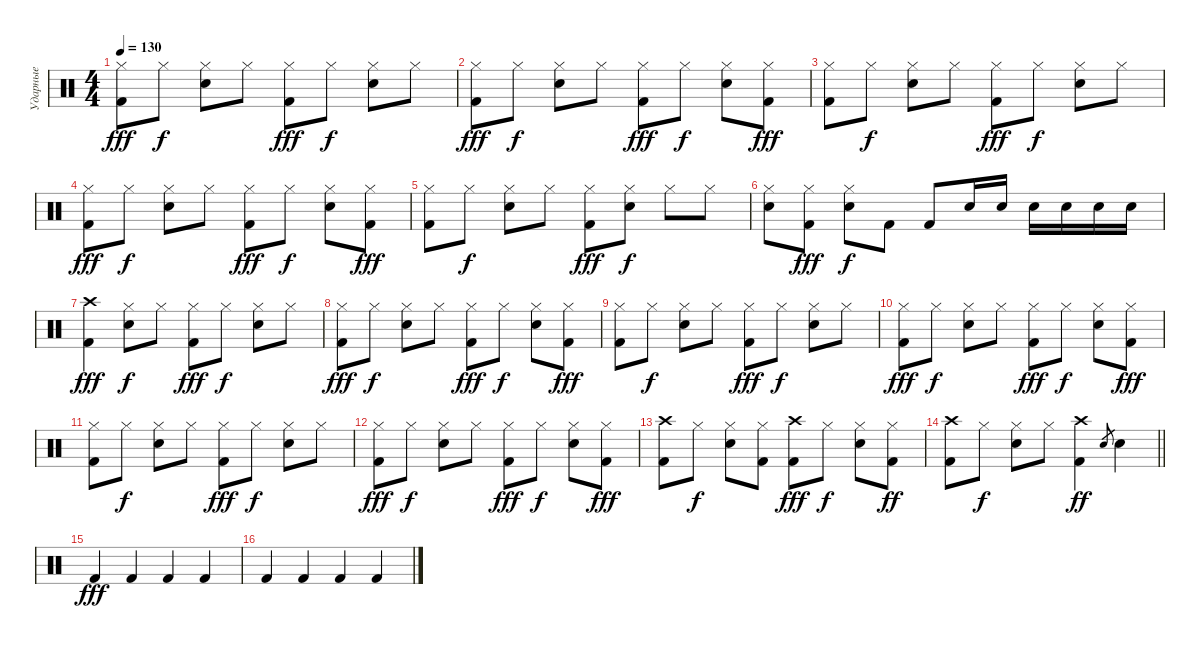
\track ("Ударные" "Ударные") {instrument percussion}
\staff {score}
\articulation defaults
\ts (4 4)
\tempo 130
\clef neutral
\ks c
("Kick (hit) 2" "Hi-Hat (closed)").8{dy fff} "Hi-Hat (closed)".8{dy f} ("Snare (hit) 2" "Hi-Hat (closed)").8 "Hi-Hat (closed)".8 ("Kick (hit) 2" "Hi-Hat (closed)").8{dy fff} "Hi-Hat (closed)".8{dy f} ("Snare (hit) 2" "Hi-Hat (closed)").8 "Hi-Hat (closed)".8 |
("Kick (hit) 2" "Hi-Hat (closed)").8{dy fff} "Hi-Hat (closed)".8{dy f} ("Snare (hit) 2" "Hi-Hat (closed)").8 "Hi-Hat (closed)".8 ("Kick (hit) 2" "Hi-Hat (closed)").8{dy fff} "Hi-Hat (closed)".8{dy f} ("Snare (hit) 2" "Hi-Hat (closed)").8 ("Kick (hit) 2" "Hi-Hat (closed)").8{dy fff} |
("Kick (hit) 2" "Hi-Hat (closed)").8 "Hi-Hat (closed)".8{dy f} ("Snare (hit) 2" "Hi-Hat (closed)").8 "Hi-Hat (closed)".8 ("Kick (hit) 2" "Hi-Hat (closed)").8{dy fff} "Hi-Hat (closed)".8{dy f} ("Snare (hit) 2" "Hi-Hat (closed)").8 "Hi-Hat (closed)".8 |
("Kick (hit) 2" "Hi-Hat (closed)").8{dy fff} "Hi-Hat (closed)".8{dy f} ("Snare (hit) 2" "Hi-Hat (closed)").8 "Hi-Hat (closed)".8 ("Kick (hit) 2" "Hi-Hat (closed)").8{dy fff} "Hi-Hat (closed)".8{dy f} ("Snare (hit) 2" "Hi-Hat (closed)").8 ("Kick (hit) 2" "Hi-Hat (closed)").8{dy fff} |
("Kick (hit) 2" "Hi-Hat (closed)").8 "Hi-Hat (closed)".8{dy f} ("Snare (hit) 2" "Hi-Hat (closed)").8 "Hi-Hat (closed)".8 ("Kick (hit) 2" "Hi-Hat (closed)").8{dy fff} ("Snare (hit) 2" "Hi-Hat (closed)").8{dy f} "Hi-Hat (closed)".8 "Hi-Hat (closed)".8 |
("Snare (hit) 2" "Hi-Hat (closed)").8 ("Kick (hit) 2" "Hi-Hat (closed)").8{dy fff} ("Snare (hit) 2" "Hi-Hat (closed)").8{dy f} "Kick (hit) 2".8 "Kick (hit) 2".8 "Snare (hit) 2".16 "Snare (hit) 2".16 "Snare (hit) 2".16 "Snare (hit) 2".16 "Snare (hit) 2".16 "Snare (hit) 2".16 |
("Kick (hit) 2" "Crash high (hit)").4{dy fff} ("Snare (hit) 2" "Hi-Hat (closed)").8{dy f} "Hi-Hat (closed)".8 ("Kick (hit) 2" "Hi-Hat (closed)").8{dy fff} "Hi-Hat (closed)".8{dy f} ("Snare (hit) 2" "Hi-Hat (closed)").8 "Hi-Hat (closed)".8 |
("Kick (hit) 2" "Hi-Hat (closed)").8{dy fff} "Hi-Hat (closed)".8{dy f} ("Snare (hit) 2" "Hi-Hat (closed)").8 "Hi-Hat (closed)".8 ("Kick (hit) 2" "Hi-Hat (closed)").8{dy fff} "Hi-Hat (closed)".8{dy f} ("Snare (hit) 2" "Hi-Hat (closed)").8 ("Kick (hit) 2" "Hi-Hat (closed)").8{dy fff} |
("Kick (hit) 2" "Hi-Hat (closed)").8 "Hi-Hat (closed)".8{dy f} ("Snare (hit) 2" "Hi-Hat (closed)").8 "Hi-Hat (closed)".8 ("Kick (hit) 2" "Hi-Hat (closed)").8{dy fff} "Hi-Hat (closed)".8{dy f} ("Snare (hit) 2" "Hi-Hat (closed)").8 "Hi-Hat (closed)".8 |
("Kick (hit) 2" "Hi-Hat (closed)").8{dy fff} "Hi-Hat (closed)".8{dy f} ("Snare (hit) 2" "Hi-Hat (closed)").8 "Hi-Hat (closed)".8 ("Kick (hit) 2" "Hi-Hat (closed)").8{dy fff} "Hi-Hat (closed)".8{dy f} ("Snare (hit) 2" "Hi-Hat (closed)").8 ("Kick (hit) 2" "Hi-Hat (closed)").8{dy fff} |
("Kick (hit) 2" "Hi-Hat (closed)").8 "Hi-Hat (closed)".8{dy f} ("Snare (hit) 2" "Hi-Hat (closed)").8 "Hi-Hat (closed)".8 ("Kick (hit) 2" "Hi-Hat (closed)").8{dy fff} "Hi-Hat (closed)".8{dy f} ("Snare (hit) 2" "Hi-Hat (closed)").8 "Hi-Hat (closed)".8 |
("Kick (hit) 2" "Hi-Hat (closed)").8{dy fff} "Hi-Hat (closed)".8{dy f} ("Snare (hit) 2" "Hi-Hat (closed)").8 "Hi-Hat (closed)".8 ("Kick (hit) 2" "Hi-Hat (closed)").8{dy fff} "Hi-Hat (closed)".8{dy f} ("Snare (hit) 2" "Hi-Hat (closed)").8 ("Kick (hit) 2" "Hi-Hat (closed)").8{dy fff} |
("Kick (hit) 2" "Crash high (hit)").8 "Hi-Hat (closed)".8{dy f} ("Snare (hit) 2" "Hi-Hat (closed)").8 ("Kick (hit) 2" "Hi-Hat (closed)").8 ("Kick (hit) 2" "Crash high (hit)").8{dy fff} "Hi-Hat (closed)".8{dy f} ("Snare (hit) 2" "Hi-Hat (closed)").8 ("Kick (hit) 2" "Hi-Hat (closed)").8{dy ff} |
\barLineRight lightlight
("Kick (hit) 2" "Crash high (hit)").8 "Hi-Hat (closed)".8{dy f} ("Snare (hit) 2" "Hi-Hat (closed)").8 "Hi-Hat (closed)".8 ("Kick (hit) 2" "Crash high (hit)").4{dy ff} "Snare (hit) 2".8{gr} "Snare (hit) 2".4 |
"Kick (hit) 2".4{dy fff} "Kick (hit) 2".4 "Kick (hit) 2".4 "Kick (hit) 2".4 |
"Kick (hit) 2".4 "Kick (hit) 2".4 "Kick (hit) 2".4 "Kick (hit) 2".4
